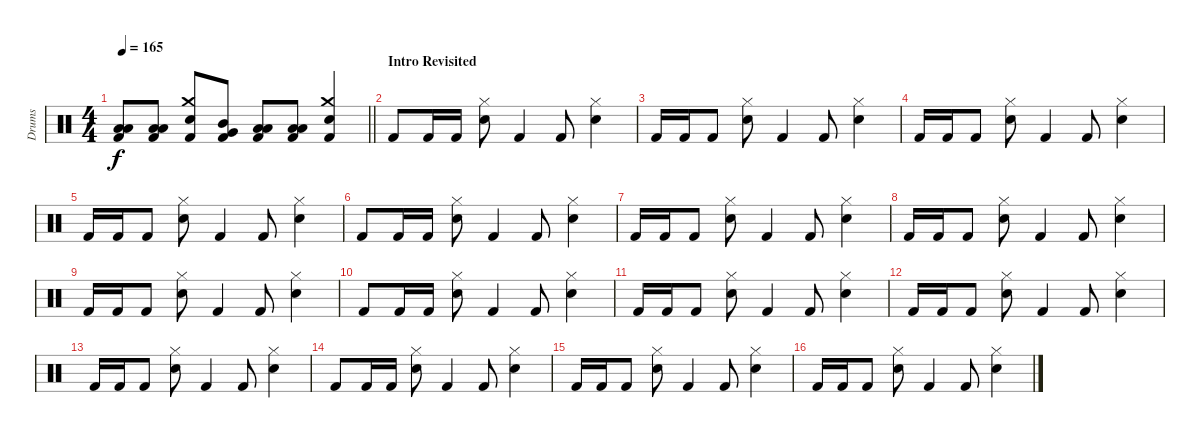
\track ("Drums" "Drums") {instrument percussion}
\staff {score}
\articulation defaults
\ts (4 4)
\tempo 165
\clef neutral
\barLineRight lightlight
\ks c
("Low Tom (hit)" "Low Floor Tom (hit)" "Kick (hit) 2").8{dy f} ("Low Tom (hit)" "Low Floor Tom (hit)" "Kick (hit) 2").8 ("Crash medium (hit)" "Snare (hit) 2" "Kick (hit) 2").8 ("Mid Tom (hit)" "Very Low Tom (hit)" "Kick (hit) 2").8 ("Low Tom (hit)" "Low Floor Tom (hit)" "Kick (hit) 2").8 ("Low Tom (hit)" "Low Floor Tom (hit)" "Kick (hit) 2").8 ("Crash medium (hit)" "Snare (hit) 2" "Kick (hit) 2").4 |
\section ("" "Intro Revisited")
"Kick (hit) 2".8 "Kick (hit) 2".16 "Kick (hit) 2".16 ("Hi-Hat (closed)" "Snare (hit) 2").8 "Kick (hit) 2".4 "Kick (hit) 2".8 ("Hi-Hat (closed)" "Snare (hit) 2").4 |
"Kick (hit) 2".16 "Kick (hit) 2".16 "Kick (hit) 2".8 ("Hi-Hat (closed)" "Snare (hit) 2").8 "Kick (hit) 2".4 "Kick (hit) 2".8 ("Hi-Hat (closed)" "Snare (hit) 2").4 |
"Kick (hit) 2".16 "Kick (hit) 2".16 "Kick (hit) 2".8 ("Hi-Hat (closed)" "Snare (hit) 2").8 "Kick (hit) 2".4 "Kick (hit) 2".8 ("Hi-Hat (closed)" "Snare (hit) 2").4 |
"Kick (hit) 2".16 "Kick (hit) 2".16 "Kick (hit) 2".8 ("Hi-Hat (closed)" "Snare (hit) 2").8 "Kick (hit) 2".4 "Kick (hit) 2".8 ("Hi-Hat (closed)" "Snare (hit) 2").4 |
"Kick (hit) 2".8 "Kick (hit) 2".16 "Kick (hit) 2".16 ("Hi-Hat (closed)" "Snare (hit) 2").8 "Kick (hit) 2".4 "Kick (hit) 2".8 ("Hi-Hat (closed)" "Snare (hit) 2").4 |
"Kick (hit) 2".16 "Kick (hit) 2".16 "Kick (hit) 2".8 ("Hi-Hat (closed)" "Snare (hit) 2").8 "Kick (hit) 2".4 "Kick (hit) 2".8 ("Hi-Hat (closed)" "Snare (hit) 2").4 |
"Kick (hit) 2".16 "Kick (hit) 2".16 "Kick (hit) 2".8 ("Hi-Hat (closed)" "Snare (hit) 2").8 "Kick (hit) 2".4 "Kick (hit) 2".8 ("Hi-Hat (closed)" "Snare (hit) 2").4 |
"Kick (hit) 2".16 "Kick (hit) 2".16 "Kick (hit) 2".8 ("Hi-Hat (closed)" "Snare (hit) 2").8 "Kick (hit) 2".4 "Kick (hit) 2".8 ("Hi-Hat (closed)" "Snare (hit) 2").4 |
"Kick (hit) 2".8 "Kick (hit) 2".16 "Kick (hit) 2".16 ("Hi-Hat (closed)" "Snare (hit) 2").8 "Kick (hit) 2".4 "Kick (hit) 2".8 ("Hi-Hat (closed)" "Snare (hit) 2").4 |
"Kick (hit) 2".16 "Kick (hit) 2".16 "Kick (hit) 2".8 ("Hi-Hat (closed)" "Snare (hit) 2").8 "Kick (hit) 2".4 "Kick (hit) 2".8 ("Hi-Hat (closed)" "Snare (hit) 2").4 |
"Kick (hit) 2".16 "Kick (hit) 2".16 "Kick (hit) 2".8 ("Hi-Hat (closed)" "Snare (hit) 2").8 "Kick (hit) 2".4 "Kick (hit) 2".8 ("Hi-Hat (closed)" "Snare (hit) 2").4 |
"Kick (hit) 2".16 "Kick (hit) 2".16 "Kick (hit) 2".8 ("Hi-Hat (closed)" "Snare (hit) 2").8 "Kick (hit) 2".4 "Kick (hit) 2".8 ("Hi-Hat (closed)" "Snare (hit) 2").4 |
"Kick (hit) 2".8 "Kick (hit) 2".16 "Kick (hit) 2".16 ("Hi-Hat (closed)" "Snare (hit) 2").8 "Kick (hit) 2".4 "Kick (hit) 2".8 ("Hi-Hat (closed)" "Snare (hit) 2").4 |
"Kick (hit) 2".16 "Kick (hit) 2".16 "Kick (hit) 2".8 ("Hi-Hat (closed)" "Snare (hit) 2").8 "Kick (hit) 2".4 "Kick (hit) 2".8 ("Hi-Hat (closed)" "Snare (hit) 2").4 |
"Kick (hit) 2".16 "Kick (hit) 2".16 "Kick (hit) 2".8 ("Hi-Hat (closed)" "Snare (hit) 2").8 "Kick (hit) 2".4 "Kick (hit) 2".8 ("Hi-Hat (closed)" "Snare (hit) 2").4
